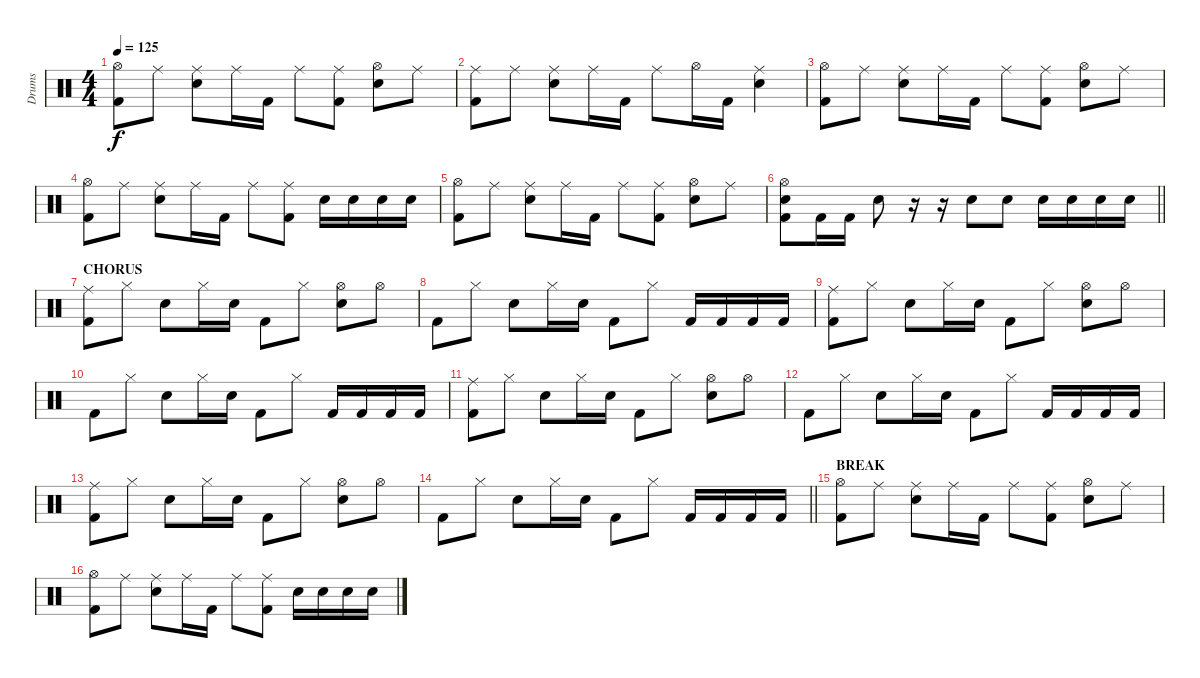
\track ("Drums" "Drums") {instrument percussion}
\staff {score}
\articulation defaults
\ts (4 4)
\tempo 125
\clef neutral
\ks c
("Hi-Hat (open)" "Kick (hit) 2").8{dy f} "Ride (middle)".8 ("Ride (middle)" "Snare (hit) 2").8 "Ride (middle)".16 "Kick (hit) 2".16 "Ride (middle)".8 ("Ride (middle)" "Kick (hit) 2").8 ("Hi-Hat (open)" "Snare (hit) 2").8 "Ride (middle)".8 |
("Ride (middle)" "Kick (hit) 2").8 "Ride (middle)".8 ("Ride (middle)" "Snare (hit) 2").8 "Ride (middle)".16 "Kick (hit) 2".16 "Ride (middle)".8 "Hi-Hat (open)".16 "Kick (hit) 2".16 ("Ride (middle)" "Snare (hit) 2").4 |
("Hi-Hat (open)" "Kick (hit) 2").8 "Ride (middle)".8 ("Ride (middle)" "Snare (hit) 2").8 "Ride (middle)".16 "Kick (hit) 2".16 "Ride (middle)".8 ("Ride (middle)" "Kick (hit) 2").8 ("Hi-Hat (open)" "Snare (hit) 2").8 "Ride (middle)".8 |
("Hi-Hat (open)" "Kick (hit) 2").8 "Ride (middle)".8 ("Ride (middle)" "Snare (hit) 2").8 "Ride (middle)".16 "Kick (hit) 2".16 "Ride (middle)".8 ("Ride (middle)" "Kick (hit) 2").8 "Snare (hit) 2".16 "Snare (hit) 2".16 "Snare (hit) 2".16 "Snare (hit) 2".16 |
("Hi-Hat (open)" "Kick (hit) 2").8 "Ride (middle)".8 ("Ride (middle)" "Snare (hit) 2").8 "Ride (middle)".16 "Kick (hit) 2".16 "Ride (middle)".8 ("Ride (middle)" "Kick (hit) 2").8 ("Hi-Hat (open)" "Snare (hit) 2").8 "Ride (middle)".8 |
\barLineRight lightlight
("Hi-Hat (open)" "Snare (hit) 2" "Kick (hit) 2").8 "Kick (hit) 2".16 "Kick (hit) 2".16 "Snare (hit) 2".8 r.16 r.16 "Snare (hit) 2".8 "Snare (hit) 2".8 "Snare (hit) 2".16 "Snare (hit) 2".16 "Snare (hit) 2".16 "Snare (hit) 2".16 |
\section ("" "CHORUS")
("Ride (middle)" "Kick (hit) 2").8 "Hi-Hat (closed)".8 "Snare (hit) 2".8 "Hi-Hat (closed)".16 "Snare (hit) 2".16 "Kick (hit) 2".8 "Hi-Hat (closed)".8 ("Hi-Hat (open)" "Snare (hit) 2").8 "Hi-Hat (open)".8 |
"Kick (hit) 2".8 "Hi-Hat (closed)".8 "Snare (hit) 2".8 "Hi-Hat (closed)".16 "Snare (hit) 2".16 "Kick (hit) 2".8 "Hi-Hat (closed)".8 "Kick (hit) 2".16 "Kick (hit) 2".16 "Kick (hit) 2".16 "Kick (hit) 2".16 |
("Ride (middle)" "Kick (hit) 2").8 "Hi-Hat (closed)".8 "Snare (hit) 2".8 "Hi-Hat (closed)".16 "Snare (hit) 2".16 "Kick (hit) 2".8 "Hi-Hat (closed)".8 ("Hi-Hat (open)" "Snare (hit) 2").8 "Hi-Hat (open)".8 |
"Kick (hit) 2".8 "Hi-Hat (closed)".8 "Snare (hit) 2".8 "Hi-Hat (closed)".16 "Snare (hit) 2".16 "Kick (hit) 2".8 "Hi-Hat (closed)".8 "Kick (hit) 2".16 "Kick (hit) 2".16 "Kick (hit) 2".16 "Kick (hit) 2".16 |
("Ride (middle)" "Kick (hit) 2").8 "Hi-Hat (closed)".8 "Snare (hit) 2".8 "Hi-Hat (closed)".16 "Snare (hit) 2".16 "Kick (hit) 2".8 "Hi-Hat (closed)".8 ("Hi-Hat (open)" "Snare (hit) 2").8 "Hi-Hat (open)".8 |
"Kick (hit) 2".8 "Hi-Hat (closed)".8 "Snare (hit) 2".8 "Hi-Hat (closed)".16 "Snare (hit) 2".16 "Kick (hit) 2".8 "Hi-Hat (closed)".8 "Kick (hit) 2".16 "Kick (hit) 2".16 "Kick (hit) 2".16 "Kick (hit) 2".16 |
("Ride (middle)" "Kick (hit) 2").8 "Hi-Hat (closed)".8 "Snare (hit) 2".8 "Hi-Hat (closed)".16 "Snare (hit) 2".16 "Kick (hit) 2".8 "Hi-Hat (closed)".8 ("Hi-Hat (open)" "Snare (hit) 2").8 "Hi-Hat (open)".8 |
\barLineRight lightlight "Kick (hit) 2".8 "Hi-Hat (closed)".8 "Snare (hit) 2".8 "Hi-Hat (closed)".16 "Snare (hit) 2".16 "Kick (hit) 2".8 "Hi-Hat (closed)".8 "Kick (hit) 2".16 "Kick (hit) 2".16 "Kick (hit) 2".16 "Kick (hit) 2".16
|
\section ("" "BREAK")
("Hi-Hat (open)" "Kick (hit) 2").8 "Ride (middle)".8 ("Ride (middle)" "Snare (hit) 2").8 "Ride (middle)".16 "Kick (hit) 2".16 "Ride (middle)".8 ("Ride (middle)" "Kick (hit) 2").8 ("Hi-Hat (open)" "Snare (hit) 2").8 "Ride (middle)".8 |
("Hi-Hat (open)" "Kick (hit) 2").8 "Ride (middle)".8 ("Ride (middle)" "Snare (hit) 2").8 "Ride (middle)".16 "Kick (hit) 2".16 "Ride (middle)".8 ("Ride (middle)" "Kick (hit) 2").8 "Snare (hit) 2".16 "Snare (hit) 2".16 "Snare (hit) 2".16 "Snare (hit) 2".16
